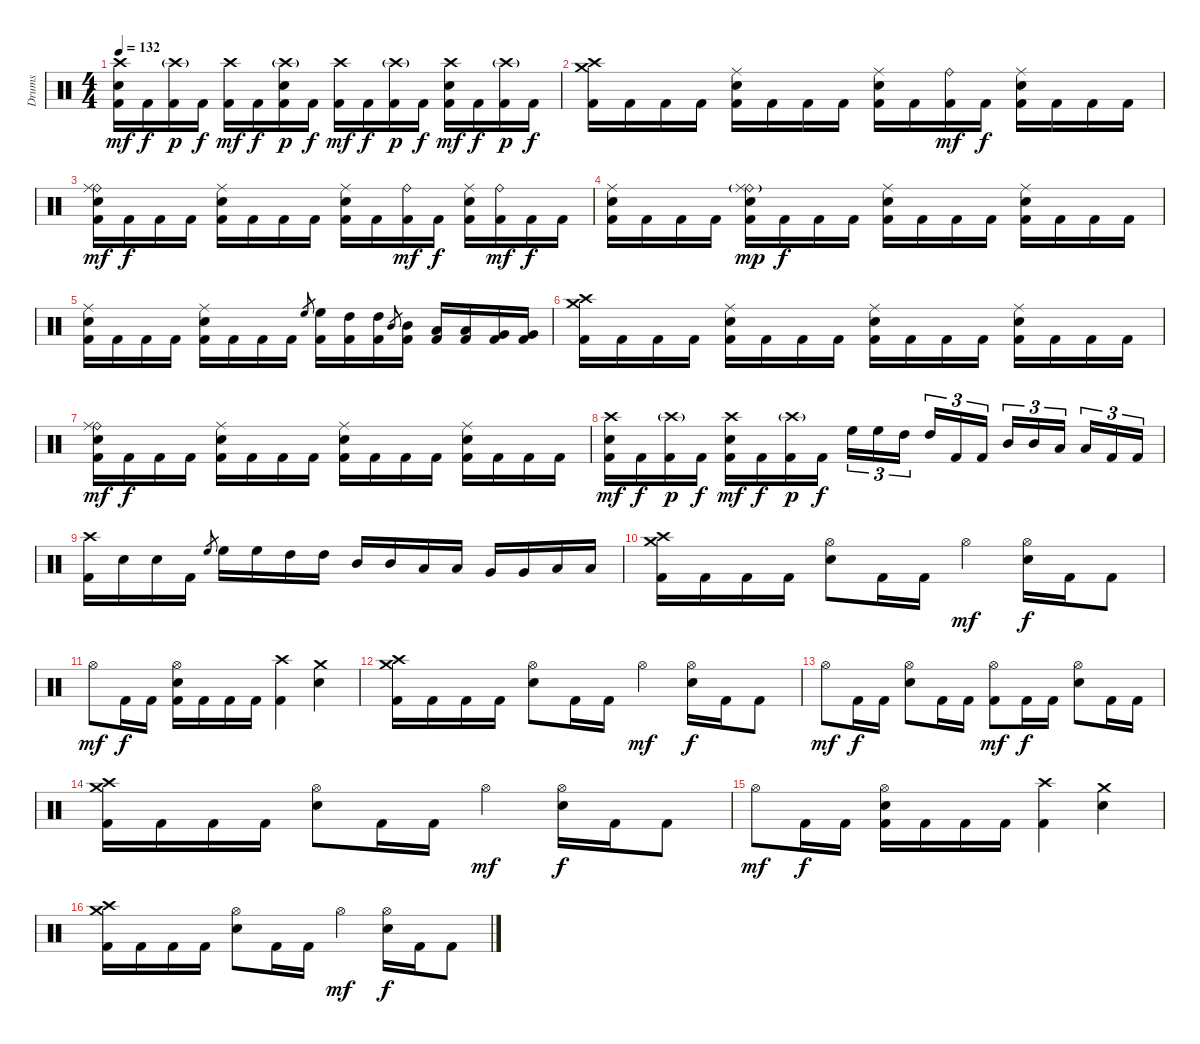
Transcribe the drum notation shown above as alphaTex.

\track ("Drums" "Drums") {instrument percussion}
\staff {score}
\articulation defaults
\ts (4 4)
\tempo 132
\clef neutral
\ks c
("Crash high (hit)" "Electric Snare (hit)" "Kick (hit) 2").16{dy mf} "Kick (hit) 2".16{dy f} ("Crash high (hit)"{g} "Kick (hit) 2").16{dy p} "Kick (hit) 2".16{dy f} ("Crash high (hit)" "Kick (hit) 2").16{dy mf} "Kick (hit) 2".16{dy f} ("Crash high (hit)"{g} "Electric Snare (hit)" "Kick (hit) 2").16{dy p} "Kick (hit) 2".16{dy f} ("Crash high (hit)" "Kick (hit) 2").16{dy mf} "Kick (hit) 2".16{dy f} ("Crash high (hit)"{g} "Kick (hit) 2").16{dy p} "Kick (hit) 2".16{dy f} ("Crash high (hit)" "Electric Snare (hit)" "Kick (hit) 2").16{dy mf} "Kick (hit) 2".16{dy f} ("Crash high (hit)"{g} "Kick (hit) 2").16{dy p} "Kick (hit) 2".16{dy f} |
("Crash high (hit)" "Crash medium (hit)" "Kick (hit) 2").16 "Kick (hit) 2".16 "Kick (hit) 2".16 "Kick (hit) 2".16 ("Ride (middle)" "Electric Snare (hit)" "Kick (hit) 2").16 "Kick (hit) 2".16 "Kick (hit) 2".16 "Kick (hit) 2".16 ("Ride (middle)" "Electric Snare (hit)" "Kick (hit) 2").16 "Kick (hit) 2".16 ("Ride (bell)" "Kick (hit) 2").16{dy mf} "Kick (hit) 2".16{dy f} ("Ride (middle)" "Electric Snare (hit)" "Kick (hit) 2").16 "Kick (hit) 2".16 "Kick (hit) 2".16 "Kick (hit) 2".16 |
("Ride (bell)" "Ride (middle)" "Electric Snare (hit)" "Kick (hit) 2").16{dy mf} "Kick (hit) 2".16{dy f} "Kick (hit) 2".16 "Kick (hit) 2".16 ("Ride (middle)" "Electric Snare (hit)" "Kick (hit) 2").16 "Kick (hit) 2".16 "Kick (hit) 2".16 "Kick (hit) 2".16 ("Ride (middle)" "Electric Snare (hit)" "Kick (hit) 2").16 "Kick (hit) 2".16 ("Ride (bell)" "Kick (hit) 2").16{dy mf} "Kick (hit) 2".16{dy f} ("Ride (middle)" "Electric Snare (hit)" "Kick (hit) 2").16 ("Ride (bell)" "Kick (hit) 2").16{dy mf} "Kick (hit) 2".16{dy f} "Kick (hit) 2".16 |
("Ride (middle)" "Electric Snare (hit)" "Kick (hit) 2").16 "Kick (hit) 2".16 "Kick (hit) 2".16 "Kick (hit) 2".16 ("Ride (bell)"{g} "Ride (middle)" "Electric Snare (hit)" "Kick (hit) 2").16{dy mp} "Kick (hit) 2".16{dy f} "Kick (hit) 2".16 "Kick (hit) 2".16 ("Ride (middle)" "Electric Snare (hit)" "Kick (hit) 2").16 "Kick (hit) 2".16 "Kick (hit) 2".16 "Kick (hit) 2".16 ("Ride (middle)" "Electric Snare (hit)" "Kick (hit) 2").16 "Kick (hit) 2".16 "Kick (hit) 2".16 "Kick (hit) 2".16 |
("Ride (middle)" "Electric Snare (hit)" "Kick (hit) 2").16 "Kick (hit) 2".16 "Kick (hit) 2".16 "Kick (hit) 2".16 ("Ride (middle)" "Electric Snare (hit)" "Kick (hit) 2").16 "Kick (hit) 2".16 "Kick (hit) 2".16 "Kick (hit) 2".16 "High Floor Tom (hit)".8{gr} ("High Floor Tom (hit)" "Kick (hit) 2").16 ("High Tom (hit)" "Kick (hit) 2").16 ("High Tom (hit)" "Kick (hit) 2").16 "Mid Tom (hit)".8{gr} ("Mid Tom (hit)" "Kick (hit) 2").16 ("Low Tom (hit)" "Kick (hit) 2").16 ("Low Tom (hit)" "Kick (hit) 2").16 ("Very Low Tom (hit)" "Kick (hit) 2").16 ("Very Low Tom (hit)" "Kick (hit) 2").16 |
("Crash high (hit)" "Crash medium (hit)" "Kick (hit) 2").16 "Kick (hit) 2".16 "Kick (hit) 2".16 "Kick (hit) 2".16 ("Ride (middle)" "Electric Snare (hit)" "Kick (hit) 2").16 "Kick (hit) 2".16 "Kick (hit) 2".16 "Kick (hit) 2".16 ("Ride (middle)" "Electric Snare (hit)" "Kick (hit) 2").16 "Kick (hit) 2".16 "Kick (hit) 2".16 "Kick (hit) 2".16 ("Ride (middle)" "Electric Snare (hit)" "Kick (hit) 2").16 "Kick (hit) 2".16 "Kick (hit) 2".16 "Kick (hit) 2".16 |
("Ride (bell)" "Ride (middle)" "Electric Snare (hit)" "Kick (hit) 2").16{dy mf} "Kick (hit) 2".16{dy f} "Kick (hit) 2".16 "Kick (hit) 2".16 ("Ride (middle)" "Electric Snare (hit)" "Kick (hit) 2").16 "Kick (hit) 2".16 "Kick (hit) 2".16 "Kick (hit) 2".16 ("Ride (middle)" "Electric Snare (hit)" "Kick (hit) 2").16 "Kick (hit) 2".16 "Kick (hit) 2".16 "Kick (hit) 2".16 ("Ride (middle)" "Electric Snare (hit)" "Kick (hit) 2").16 "Kick (hit) 2".16 "Kick (hit) 2".16 "Kick (hit) 2".16 |
("Crash high (hit)" "Electric Snare (hit)" "Kick (hit) 2").16{dy mf} "Kick (hit) 2".16{dy f} ("Crash high (hit)"{g} "Kick (hit) 2").16{dy p} "Kick (hit) 2".16{dy f} ("Crash high (hit)" "Electric Snare (hit)" "Kick (hit) 2").16{dy mf} "Kick (hit) 2".16{dy f} ("Crash high (hit)"{g} "Kick (hit) 2").16{dy p} "Kick (hit) 2".16{dy f} "High Floor Tom (hit)".16{tu (3 2)} "High Floor Tom (hit)".16{tu (3 2)} "High Tom (hit)".16{tu (3 2) beam splitsecondary} "High Tom (hit)".16{tu (3 2)} "Kick (hit) 2".16{tu (3 2)} "Kick (hit) 2".16{tu (3 2)} "Mid Tom (hit)".16{tu (3 2)} "Mid Tom (hit)".16{tu (3 2)} "Low Tom (hit)".16{tu (3 2) beam splitsecondary} "Low Tom (hit)".16{tu (3 2)} "Kick (hit) 2".16{tu (3 2)} "Kick (hit) 2".16{tu (3 2)} |
("Crash high (hit)" "Kick (hit) 2").16 "Electric Snare (hit)".16 "Electric Snare (hit)".16 "Kick (hit) 2".16 "High Floor Tom (hit)".8{gr} "High Floor Tom (hit)".16 "High Floor Tom (hit)".16 "High Tom (hit)".16 "High Tom (hit)".16 "Mid Tom (hit)".16 "Mid Tom (hit)".16 "Low Tom (hit)".16 "Low Tom (hit)".16 "Very Low Tom (hit)".16 "Very Low Tom (hit)".16 "Low Floor Tom (hit)".16 "Low Floor Tom (hit)".16 |
("Crash high (hit)" "Crash medium (hit)" "Kick (hit) 2").16 "Kick (hit) 2".16 "Kick (hit) 2".16 "Kick (hit) 2".16 ("Hi-Hat (open)" "Electric Snare (hit)").8 "Kick (hit) 2".16 "Kick (hit) 2".16 "Hi-Hat (open)".4{dy mf} ("Hi-Hat (open)" "Electric Snare (hit)").16{dy f} "Kick (hit) 2".16 "Kick (hit) 2".8 |
"Hi-Hat (open)".8{dy mf} "Kick (hit) 2".16{dy f} "Kick (hit) 2".16 ("Hi-Hat (open)" "Electric Snare (hit)" "Kick (hit) 2").16 "Kick (hit) 2".16 "Kick (hit) 2".16 "Kick (hit) 2".16 ("Crash high (hit)" "Kick (hit) 2").4 ("Crash medium (hit)" "Electric Snare (hit)").4 |
("Crash high (hit)" "Crash medium (hit)" "Kick (hit) 2").16 "Kick (hit) 2".16 "Kick (hit) 2".16 "Kick (hit) 2".16 ("Hi-Hat (open)" "Electric Snare (hit)").8 "Kick (hit) 2".16 "Kick (hit) 2".16 "Hi-Hat (open)".4{dy mf} ("Hi-Hat (open)" "Electric Snare (hit)").16{dy f} "Kick (hit) 2".16 "Kick (hit) 2".8 |
"Hi-Hat (open)".8{dy mf} "Kick (hit) 2".16{dy f} "Kick (hit) 2".16 ("Hi-Hat (open)" "Electric Snare (hit)").8 "Kick (hit) 2".16 "Kick (hit) 2".16 ("Hi-Hat (open)" "Kick (hit) 2").8{dy mf} "Kick (hit) 2".16{dy f} "Kick (hit) 2".16 ("Hi-Hat (open)" "Electric Snare (hit)").8 "Kick (hit) 2".16 "Kick (hit) 2".16 |
("Crash high (hit)" "Crash medium (hit)" "Kick (hit) 2").16 "Kick (hit) 2".16 "Kick (hit) 2".16 "Kick (hit) 2".16 ("Hi-Hat (open)" "Electric Snare (hit)").8 "Kick (hit) 2".16 "Kick (hit) 2".16 "Hi-Hat (open)".4{dy mf} ("Hi-Hat (open)" "Electric Snare (hit)").16{dy f} "Kick (hit) 2".16 "Kick (hit) 2".8 |
"Hi-Hat (open)".8{dy mf} "Kick (hit) 2".16{dy f} "Kick (hit) 2".16 ("Hi-Hat (open)" "Electric Snare (hit)" "Kick (hit) 2").16 "Kick (hit) 2".16 "Kick (hit) 2".16 "Kick (hit) 2".16 ("Crash high (hit)" "Kick (hit) 2").4 ("Crash medium (hit)" "Electric Snare (hit)").4 |
("Crash high (hit)" "Crash medium (hit)" "Kick (hit) 2").16 "Kick (hit) 2".16 "Kick (hit) 2".16 "Kick (hit) 2".16 ("Hi-Hat (open)" "Electric Snare (hit)").8 "Kick (hit) 2".16 "Kick (hit) 2".16 "Hi-Hat (open)".4{dy mf} ("Hi-Hat (open)" "Electric Snare (hit)").16{dy f} "Kick (hit) 2".16 "Kick (hit) 2".8
